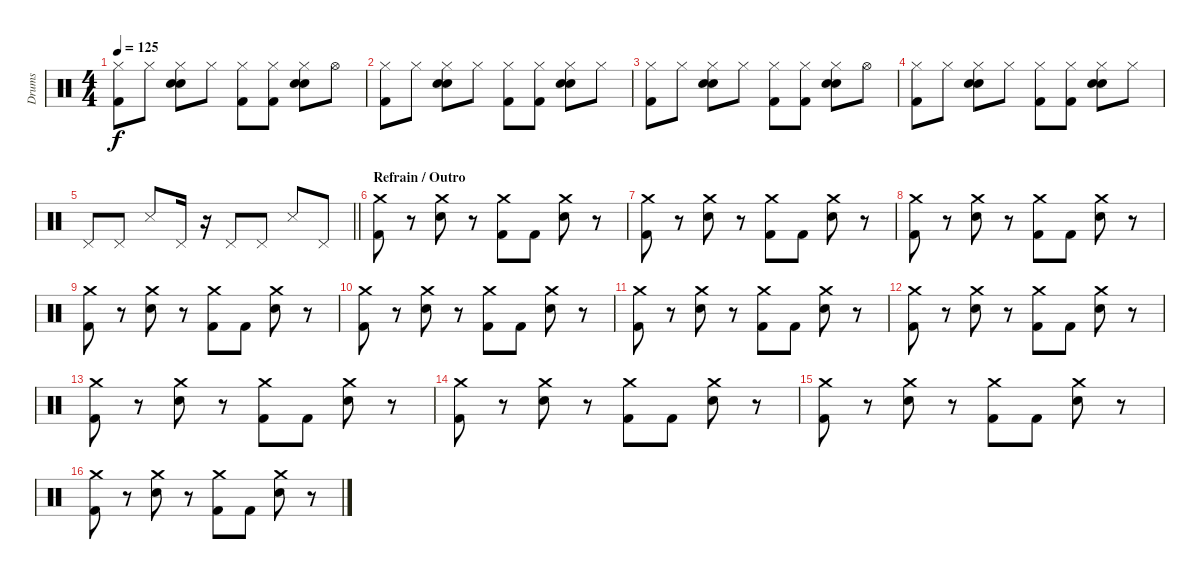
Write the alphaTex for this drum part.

\track ("Drums" "Drums") {instrument percussion}
\staff {score}
\articulation defaults
\ts (4 4)
\tempo 125
\clef neutral
\ks c
("Hi-Hat (closed)" "Kick (hit) 2").8{dy f} "Hi-Hat (closed)".8 ("Hi-Hat (closed)" "Electric Snare (hit)" "Snare (hit) 2").8 "Hi-Hat (closed)".8 ("Hi-Hat (closed)" "Kick (hit) 2").8 ("Hi-Hat (closed)" "Kick (hit) 2").8 ("Hi-Hat (closed)" "Electric Snare (hit)" "Snare (hit) 2").8 "Hi-Hat (open)".8 |
("Hi-Hat (closed)" "Kick (hit) 2").8 "Hi-Hat (closed)".8 ("Hi-Hat (closed)" "Electric Snare (hit)" "Snare (hit) 2").8 "Hi-Hat (closed)".8 ("Hi-Hat (closed)" "Kick (hit) 2").8 ("Hi-Hat (closed)" "Kick (hit) 2").8 ("Hi-Hat (closed)" "Electric Snare (hit)" "Snare (hit) 2").8 "Hi-Hat (closed)".8 |
("Hi-Hat (closed)" "Kick (hit) 2").8 "Hi-Hat (closed)".8 ("Hi-Hat (closed)" "Electric Snare (hit)" "Snare (hit) 2").8 "Hi-Hat (closed)".8 ("Hi-Hat (closed)" "Kick (hit) 2").8 ("Hi-Hat (closed)" "Kick (hit) 2").8 ("Hi-Hat (closed)" "Electric Snare (hit)" "Snare (hit) 2").8 "Hi-Hat (open)".8 |
("Hi-Hat (closed)" "Kick (hit) 2").8 "Hi-Hat (closed)".8 ("Hi-Hat (closed)" "Electric Snare (hit)" "Snare (hit) 2").8 "Hi-Hat (closed)".8 ("Hi-Hat (closed)" "Kick (hit) 2").8 ("Hi-Hat (closed)" "Kick (hit) 2").8 ("Hi-Hat (closed)" "Electric Snare (hit)" "Snare (hit) 2").8 "Hi-Hat (closed)".8 |
\barLineRight lightlight "Pedal Hi-Hat (hit)".8 "Pedal Hi-Hat (hit)".8 "Snare (side stick) 3".8 "Pedal Hi-Hat (hit)".16
r.16 "Pedal Hi-Hat (hit)".8 "Pedal Hi-Hat (hit)".8 "Snare (side stick) 3".8 "Pedal Hi-Hat (hit)".8 |
\section ("" "Refrain / Outro")
("Crash medium (hit)" "Kick (hit) 2").8 r.8 ("Crash medium (hit)" "Electric Snare (hit)").8 r.8 ("Crash medium (hit)" "Kick (hit) 2").8 "Kick (hit) 2".8 ("Crash medium (hit)" "Electric Snare (hit)").8 r.8 |
("Crash medium (hit)" "Kick (hit) 2").8 r.8 ("Crash medium (hit)" "Electric Snare (hit)").8 r.8 ("Crash medium (hit)" "Kick (hit) 2").8 "Kick (hit) 2".8 ("Crash medium (hit)" "Electric Snare (hit)").8 r.8 |
("Crash medium (hit)" "Kick (hit) 2").8 r.8 ("Crash medium (hit)" "Electric Snare (hit)").8 r.8 ("Crash medium (hit)" "Kick (hit) 2").8 "Kick (hit) 2".8 ("Crash medium (hit)" "Electric Snare (hit)").8 r.8 |
("Crash medium (hit)" "Kick (hit) 2").8 r.8 ("Crash medium (hit)" "Electric Snare (hit)").8 r.8 ("Crash medium (hit)" "Kick (hit) 2").8 "Kick (hit) 2".8 ("Crash medium (hit)" "Electric Snare (hit)").8 r.8 |
("Crash medium (hit)" "Kick (hit) 2").8 r.8 ("Crash medium (hit)" "Electric Snare (hit)").8 r.8 ("Crash medium (hit)" "Kick (hit) 2").8 "Kick (hit) 2".8 ("Crash medium (hit)" "Electric Snare (hit)").8 r.8 |
("Crash medium (hit)" "Kick (hit) 2").8 r.8 ("Crash medium (hit)" "Electric Snare (hit)").8 r.8 ("Crash medium (hit)" "Kick (hit) 2").8 "Kick (hit) 2".8 ("Crash medium (hit)" "Electric Snare (hit)").8 r.8 |
("Crash medium (hit)" "Kick (hit) 2").8 r.8 ("Crash medium (hit)" "Electric Snare (hit)").8 r.8 ("Crash medium (hit)" "Kick (hit) 2").8 "Kick (hit) 2".8 ("Crash medium (hit)" "Electric Snare (hit)").8 r.8 |
("Crash medium (hit)" "Kick (hit) 2").8 r.8 ("Crash medium (hit)" "Electric Snare (hit)").8 r.8 ("Crash medium (hit)" "Kick (hit) 2").8 "Kick (hit) 2".8 ("Crash medium (hit)" "Electric Snare (hit)").8 r.8 |
("Crash medium (hit)" "Kick (hit) 2").8 r.8 ("Crash medium (hit)" "Electric Snare (hit)").8 r.8 ("Crash medium (hit)" "Kick (hit) 2").8 "Kick (hit) 2".8 ("Crash medium (hit)" "Electric Snare (hit)").8 r.8 |
("Crash medium (hit)" "Kick (hit) 2").8 r.8 ("Crash medium (hit)" "Electric Snare (hit)").8 r.8 ("Crash medium (hit)" "Kick (hit) 2").8 "Kick (hit) 2".8 ("Crash medium (hit)" "Electric Snare (hit)").8 r.8 |
("Crash medium (hit)" "Kick (hit) 2").8 r.8 ("Crash medium (hit)" "Electric Snare (hit)").8 r.8 ("Crash medium (hit)" "Kick (hit) 2").8 "Kick (hit) 2".8 ("Crash medium (hit)" "Electric Snare (hit)").8 r.8
